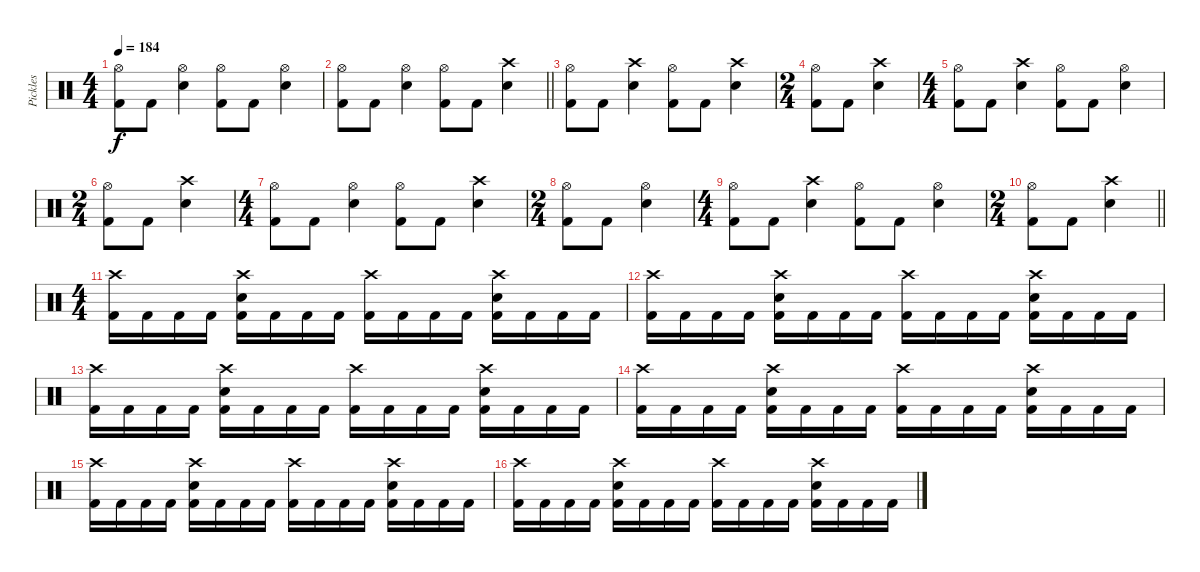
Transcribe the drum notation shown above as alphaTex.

\track ("Pickles" "Pickles") {instrument percussion}
\staff {score}
\articulation defaults
\ts (4 4)
\tempo 184
\clef neutral
\ks aminor
("Hi-Hat (open)" "Kick (hit) 2").8{dy f} "Kick (hit) 2".8 ("Hi-Hat (open)" "Snare (hit) 2").4 ("Hi-Hat (open)" "Kick (hit) 2").8 "Kick (hit) 2".8 ("Hi-Hat (open)" "Snare (hit) 2").4 |
\barLineRight lightlight
("Hi-Hat (open)" "Kick (hit) 2").8 "Kick (hit) 2".8 ("Hi-Hat (open)" "Snare (hit) 2").4 ("Hi-Hat (open)" "Kick (hit) 2").8 "Kick (hit) 2".8 ("Crash high (hit)" "Snare (hit) 2").4 |
("Hi-Hat (open)" "Kick (hit) 2").8 "Kick (hit) 2".8 ("Crash high (hit)" "Snare (hit) 2").4 ("Hi-Hat (open)" "Kick (hit) 2").8 "Kick (hit) 2".8 ("Crash high (hit)" "Snare (hit) 2").4 |
\ts (2 4)
("Hi-Hat (open)" "Kick (hit) 2").8 "Kick (hit) 2".8 ("Crash high (hit)" "Snare (hit) 2").4 |
\ts (4 4)
("Hi-Hat (open)" "Kick (hit) 2").8 "Kick (hit) 2".8 ("Crash high (hit)" "Snare (hit) 2").4 ("Hi-Hat (open)" "Kick (hit) 2").8 "Kick (hit) 2".8 ("Hi-Hat (open)" "Snare (hit) 2").4 |
\ts (2 4)
("Hi-Hat (open)" "Kick (hit) 2").8 "Kick (hit) 2".8 ("Crash high (hit)" "Snare (hit) 2").4 |
\ts (4 4)
("Hi-Hat (open)" "Kick (hit) 2").8 "Kick (hit) 2".8 ("Hi-Hat (open)" "Snare (hit) 2").4 ("Hi-Hat (open)" "Kick (hit) 2").8 "Kick (hit) 2".8 ("Crash high (hit)" "Snare (hit) 2").4 |
\ts (2 4)
("Hi-Hat (open)" "Kick (hit) 2").8 "Kick (hit) 2".8 ("Hi-Hat (open)" "Snare (hit) 2").4 |
\ts (4 4)
("Hi-Hat (open)" "Kick (hit) 2").8 "Kick (hit) 2".8 ("Crash high (hit)" "Snare (hit) 2").4 ("Hi-Hat (open)" "Kick (hit) 2").8 "Kick (hit) 2".8 ("Hi-Hat (open)" "Snare (hit) 2").4 |
\ts (2 4)
\barLineRight lightlight
("Hi-Hat (open)" "Kick (hit) 2").8 "Kick (hit) 2".8 ("Crash high (hit)" "Snare (hit) 2").4 |
\ts (4 4)
("Crash high (hit)" "Kick (hit) 2").16 "Kick (hit) 2".16 "Kick (hit) 2".16 "Kick (hit) 2".16 ("Crash high (hit)" "Snare (hit) 2" "Kick (hit) 2").16 "Kick (hit) 2".16 "Kick (hit) 2".16 "Kick (hit) 2".16 ("Crash high (hit)" "Kick (hit) 2").16 "Kick (hit) 2".16 "Kick (hit) 2".16 "Kick (hit) 2".16 ("Crash high (hit)" "Snare (hit) 2" "Kick (hit) 2").16 "Kick (hit) 2".16 "Kick (hit) 2".16 "Kick (hit) 2".16 |
("Crash high (hit)" "Kick (hit) 2").16 "Kick (hit) 2".16 "Kick (hit) 2".16 "Kick (hit) 2".16 ("Crash high (hit)" "Snare (hit) 2" "Kick (hit) 2").16 "Kick (hit) 2".16 "Kick (hit) 2".16 "Kick (hit) 2".16 ("Crash high (hit)" "Kick (hit) 2").16 "Kick (hit) 2".16 "Kick (hit) 2".16 "Kick (hit) 2".16 ("Crash high (hit)" "Snare (hit) 2" "Kick (hit) 2").16 "Kick (hit) 2".16 "Kick (hit) 2".16 "Kick (hit) 2".16 |
("Crash high (hit)" "Kick (hit) 2").16 "Kick (hit) 2".16 "Kick (hit) 2".16 "Kick (hit) 2".16 ("Crash high (hit)" "Snare (hit) 2" "Kick (hit) 2").16 "Kick (hit) 2".16 "Kick (hit) 2".16 "Kick (hit) 2".16 ("Crash high (hit)" "Kick (hit) 2").16 "Kick (hit) 2".16 "Kick (hit) 2".16 "Kick (hit) 2".16 ("Crash high (hit)" "Snare (hit) 2" "Kick (hit) 2").16 "Kick (hit) 2".16 "Kick (hit) 2".16 "Kick (hit) 2".16 |
("Crash high (hit)" "Kick (hit) 2").16 "Kick (hit) 2".16 "Kick (hit) 2".16 "Kick (hit) 2".16 ("Crash high (hit)" "Snare (hit) 2" "Kick (hit) 2").16 "Kick (hit) 2".16 "Kick (hit) 2".16 "Kick (hit) 2".16 ("Crash high (hit)" "Kick (hit) 2").16 "Kick (hit) 2".16 "Kick (hit) 2".16 "Kick (hit) 2".16 ("Crash high (hit)" "Snare (hit) 2" "Kick (hit) 2").16 "Kick (hit) 2".16 "Kick (hit) 2".16 "Kick (hit) 2".16 |
("Crash high (hit)" "Kick (hit) 2").16 "Kick (hit) 2".16 "Kick (hit) 2".16 "Kick (hit) 2".16 ("Crash high (hit)" "Snare (hit) 2" "Kick (hit) 2").16 "Kick (hit) 2".16 "Kick (hit) 2".16 "Kick (hit) 2".16 ("Crash high (hit)" "Kick (hit) 2").16 "Kick (hit) 2".16 "Kick (hit) 2".16 "Kick (hit) 2".16 ("Crash high (hit)" "Snare (hit) 2" "Kick (hit) 2").16 "Kick (hit) 2".16 "Kick (hit) 2".16 "Kick (hit) 2".16 |
("Crash high (hit)" "Kick (hit) 2").16 "Kick (hit) 2".16 "Kick (hit) 2".16 "Kick (hit) 2".16 ("Crash high (hit)" "Snare (hit) 2" "Kick (hit) 2").16 "Kick (hit) 2".16 "Kick (hit) 2".16 "Kick (hit) 2".16 ("Crash high (hit)" "Kick (hit) 2").16 "Kick (hit) 2".16 "Kick (hit) 2".16 "Kick (hit) 2".16 ("Crash high (hit)" "Snare (hit) 2" "Kick (hit) 2").16 "Kick (hit) 2".16 "Kick (hit) 2".16 "Kick (hit) 2".16
